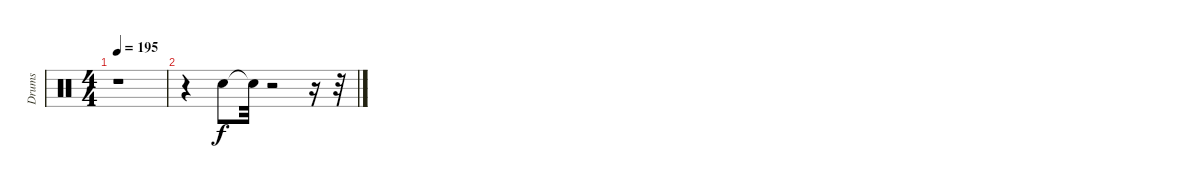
\track ("Drums" "Drums") {instrument percussion}
\staff {score}
\articulation defaults
\ts (4 4)
\tempo 195
\clef neutral
\ks c
r.1{dy f} |
r.4 "Electric Snare (hit)".8 "Snare (hit)"{t}.32 r.2 r.16 r.32
